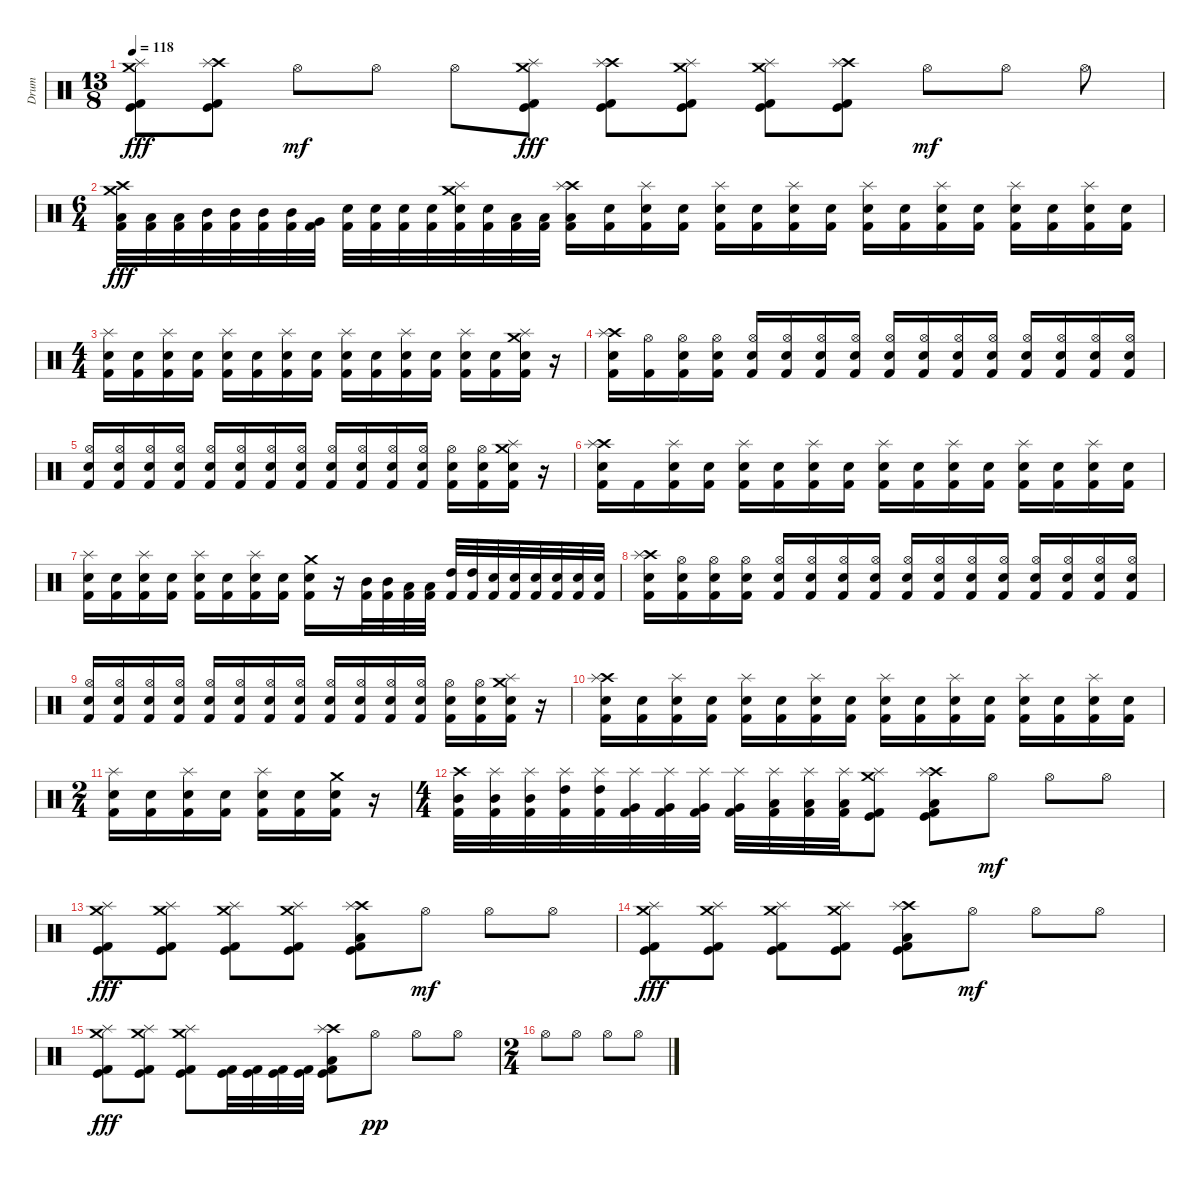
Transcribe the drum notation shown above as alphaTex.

\track ("Drum" "Drum") {instrument percussion}
\staff {score}
\articulation defaults
\ts (13 8)
\tempo 118
\clef neutral
\ks c
("Crash medium (hit)" "Splash (hit)" "Kick (hit)" "Kick (hit) 2").8{dy fff} ("Crash high (hit)" "Splash (hit)" "Kick (hit)" "Kick (hit) 2").8 "Hi-Hat (open)".8{dy mf} "Hi-Hat (open)".8 "Hi-Hat (open)".8 ("Crash medium (hit)" "Splash (hit)" "Kick (hit)" "Kick (hit) 2").8{dy fff} ("Crash high (hit)" "Splash (hit)" "Kick (hit)" "Kick (hit) 2").8 ("Crash medium (hit)" "Splash (hit)" "Kick (hit)" "Kick (hit) 2").8 ("Crash medium (hit)" "Splash (hit)" "Kick (hit)" "Kick (hit) 2").8 ("Crash high (hit)" "Splash (hit)" "Kick (hit)" "Kick (hit) 2").8 "Hi-Hat (open)".8{dy mf} "Hi-Hat (open)".8 "Hi-Hat (open)".8 |
\ts (6 4)
("Crash medium (hit)" "Crash high (hit)" "Low Tom (hit)" "Kick (hit) 2").32{dy fff} ("Low Tom (hit)" "Kick (hit) 2").32 ("Low Tom (hit)" "Kick (hit) 2").32 ("Mid Tom (hit)" "Kick (hit) 2").32 ("Mid Tom (hit)" "Kick (hit) 2").32 ("Mid Tom (hit)" "Kick (hit) 2").32 ("Mid Tom (hit)" "Kick (hit) 2").32 ("Very Low Tom (hit)" "Kick (hit) 2").32 ("Electric Snare (hit)" "Kick (hit) 2").32 ("Electric Snare (hit)" "Kick (hit) 2").32 ("Electric Snare (hit)" "Kick (hit) 2").32 ("Electric Snare (hit)" "Kick (hit) 2").32 ("Crash medium (hit)" "Splash (hit)" "Electric Snare (hit)" "Kick (hit) 2").32 ("Electric Snare (hit)" "Kick (hit) 2").32 ("Low Floor Tom (hit)" "Kick (hit) 2").32 ("Low Floor Tom (hit)" "Kick (hit) 2").32 ("Crash high (hit)" "Splash (hit)" "Low Floor Tom (hit)" "Kick (hit) 2").16 ("Electric Snare (hit)" "Kick (hit) 2").16 ("Splash (hit)" "Electric Snare (hit)" "Kick (hit) 2").16 ("Electric Snare (hit)" "Kick (hit) 2").16 ("Splash (hit)" "Electric Snare (hit)" "Kick (hit) 2").16 ("Electric Snare (hit)" "Kick (hit) 2").16 ("Splash (hit)" "Electric Snare (hit)" "Kick (hit) 2").16 ("Electric Snare (hit)" "Kick (hit) 2").16 ("Splash (hit)" "Electric Snare (hit)" "Kick (hit) 2").16 ("Electric Snare (hit)" "Kick (hit) 2").16 ("Splash (hit)" "Electric Snare (hit)" "Kick (hit) 2").16 ("Electric Snare (hit)" "Kick (hit) 2").16 ("Splash (hit)" "Electric Snare (hit)" "Kick (hit) 2").16 ("Electric Snare (hit)" "Kick (hit) 2").16 ("Splash (hit)" "Electric Snare (hit)" "Kick (hit) 2").16 ("Electric Snare (hit)" "Kick (hit) 2").16 |
\ts (4 4)
("Splash (hit)" "Electric Snare (hit)" "Kick (hit) 2").16 ("Electric Snare (hit)" "Kick (hit) 2").16 ("Splash (hit)" "Electric Snare (hit)" "Kick (hit) 2").16 ("Electric Snare (hit)" "Kick (hit) 2").16 ("Splash (hit)" "Electric Snare (hit)" "Kick (hit) 2").16 ("Electric Snare (hit)" "Kick (hit) 2").16 ("Splash (hit)" "Electric Snare (hit)" "Kick (hit) 2").16 ("Electric Snare (hit)" "Kick (hit) 2").16 ("Splash (hit)" "Electric Snare (hit)" "Kick (hit) 2").16 ("Electric Snare (hit)" "Kick (hit) 2").16 ("Splash (hit)" "Electric Snare (hit)" "Kick (hit) 2").16 ("Electric Snare (hit)" "Kick (hit) 2").16 ("Splash (hit)" "Electric Snare (hit)" "Kick (hit) 2").16 ("Electric Snare (hit)" "Kick (hit) 2").16 ("Crash medium (hit)" "Splash (hit)" "Electric Snare (hit)" "Kick (hit) 2").16 r.16 |
("Crash high (hit)" "Splash (hit)" "Electric Snare (hit)" "Kick (hit) 2").16 ("Hi-Hat (open)" "Kick (hit) 2").16 ("Hi-Hat (open)" "Electric Snare (hit)" "Kick (hit) 2").16 ("Hi-Hat (open)" "Electric Snare (hit)" "Kick (hit) 2").16 ("Hi-Hat (open)" "Electric Snare (hit)" "Kick (hit) 2").16 ("Hi-Hat (open)" "Electric Snare (hit)" "Kick (hit) 2").16 ("Hi-Hat (open)" "Electric Snare (hit)" "Kick (hit) 2").16 ("Hi-Hat (open)" "Electric Snare (hit)" "Kick (hit) 2").16 ("Hi-Hat (open)" "Electric Snare (hit)" "Kick (hit) 2").16 ("Hi-Hat (open)" "Electric Snare (hit)" "Kick (hit) 2").16 ("Hi-Hat (open)" "Electric Snare (hit)" "Kick (hit) 2").16 ("Hi-Hat (open)" "Electric Snare (hit)" "Kick (hit) 2").16 ("Hi-Hat (open)" "Electric Snare (hit)" "Kick (hit) 2").16 ("Hi-Hat (open)" "Electric Snare (hit)" "Kick (hit) 2").16 ("Hi-Hat (open)" "Electric Snare (hit)" "Kick (hit) 2").16 ("Hi-Hat (open)" "Electric Snare (hit)" "Kick (hit) 2").16 |
("Hi-Hat (open)" "Electric Snare (hit)" "Kick (hit) 2").16 ("Hi-Hat (open)" "Electric Snare (hit)" "Kick (hit) 2").16 ("Hi-Hat (open)" "Electric Snare (hit)" "Kick (hit) 2").16 ("Hi-Hat (open)" "Electric Snare (hit)" "Kick (hit) 2").16 ("Hi-Hat (open)" "Electric Snare (hit)" "Kick (hit) 2").16 ("Hi-Hat (open)" "Electric Snare (hit)" "Kick (hit) 2").16 ("Hi-Hat (open)" "Electric Snare (hit)" "Kick (hit) 2").16 ("Hi-Hat (open)" "Electric Snare (hit)" "Kick (hit) 2").16 ("Hi-Hat (open)" "Electric Snare (hit)" "Kick (hit) 2").16 ("Hi-Hat (open)" "Electric Snare (hit)" "Kick (hit) 2").16 ("Hi-Hat (open)" "Electric Snare (hit)" "Kick (hit) 2").16 ("Hi-Hat (open)" "Electric Snare (hit)" "Kick (hit) 2").16 ("Hi-Hat (open)" "Electric Snare (hit)" "Kick (hit) 2").16 ("Hi-Hat (open)" "Electric Snare (hit)" "Kick (hit) 2").16 ("Crash medium (hit)" "Splash (hit)" "Electric Snare (hit)" "Kick (hit) 2").16 r.16 |
("Crash high (hit)" "Splash (hit)" "Electric Snare (hit)" "Kick (hit) 2").16 "Kick (hit) 2".16 ("Splash (hit)" "Electric Snare (hit)" "Kick (hit) 2").16 ("Electric Snare (hit)" "Kick (hit) 2").16 ("Splash (hit)" "Electric Snare (hit)" "Kick (hit) 2").16 ("Electric Snare (hit)" "Kick (hit) 2").16 ("Splash (hit)" "Electric Snare (hit)" "Kick (hit) 2").16 ("Electric Snare (hit)" "Kick (hit) 2").16 ("Splash (hit)" "Electric Snare (hit)" "Kick (hit) 2").16 ("Electric Snare (hit)" "Kick (hit) 2").16 ("Splash (hit)" "Electric Snare (hit)" "Kick (hit) 2").16 ("Electric Snare (hit)" "Kick (hit) 2").16 ("Splash (hit)" "Electric Snare (hit)" "Kick (hit) 2").16 ("Electric Snare (hit)" "Kick (hit) 2").16 ("Splash (hit)" "Electric Snare (hit)" "Kick (hit) 2").16 ("Electric Snare (hit)" "Kick (hit) 2").16 |
("Splash (hit)" "Electric Snare (hit)" "Kick (hit) 2").16 ("Electric Snare (hit)" "Kick (hit) 2").16 ("Splash (hit)" "Electric Snare (hit)" "Kick (hit) 2").16 ("Electric Snare (hit)" "Kick (hit) 2").16 ("Splash (hit)" "Electric Snare (hit)" "Kick (hit) 2").16 ("Electric Snare (hit)" "Kick (hit) 2").16 ("Splash (hit)" "Electric Snare (hit)" "Kick (hit) 2").16 ("Electric Snare (hit)" "Kick (hit) 2").16 ("Crash medium (hit)" "Electric Snare (hit)" "Kick (hit) 2").16 r.16 ("Mid Tom (hit)" "Kick (hit) 2").32 ("Mid Tom (hit)" "Kick (hit) 2").32 ("Low Tom (hit)" "Kick (hit) 2").32 ("Low Tom (hit)" "Kick (hit) 2").32 ("High Tom (hit)" "Kick (hit) 2").32 ("High Tom (hit)" "Kick (hit) 2").32 ("Electric Snare (hit)" "Kick (hit) 2").32 ("Electric Snare (hit)" "Kick (hit) 2").32 ("Electric Snare (hit)" "Kick (hit) 2").32 ("Electric Snare (hit)" "Kick (hit) 2").32 ("Electric Snare (hit)" "Kick (hit) 2").32 ("Electric Snare (hit)" "Kick (hit) 2").32 |
("Crash high (hit)" "Splash (hit)" "Electric Snare (hit)" "Kick (hit) 2").16 ("Hi-Hat (open)" "Electric Snare (hit)" "Kick (hit) 2").16 ("Hi-Hat (open)" "Electric Snare (hit)" "Kick (hit) 2").16 ("Hi-Hat (open)" "Electric Snare (hit)" "Kick (hit) 2").16 ("Hi-Hat (open)" "Electric Snare (hit)" "Kick (hit) 2").16 ("Hi-Hat (open)" "Electric Snare (hit)" "Kick (hit) 2").16 ("Hi-Hat (open)" "Electric Snare (hit)" "Kick (hit) 2").16 ("Hi-Hat (open)" "Electric Snare (hit)" "Kick (hit) 2").16 ("Hi-Hat (open)" "Electric Snare (hit)" "Kick (hit) 2").16 ("Hi-Hat (open)" "Electric Snare (hit)" "Kick (hit) 2").16 ("Hi-Hat (open)" "Electric Snare (hit)" "Kick (hit) 2").16 ("Hi-Hat (open)" "Electric Snare (hit)" "Kick (hit) 2").16 ("Hi-Hat (open)" "Electric Snare (hit)" "Kick (hit) 2").16 ("Hi-Hat (open)" "Electric Snare (hit)" "Kick (hit) 2").16 ("Hi-Hat (open)" "Electric Snare (hit)" "Kick (hit) 2").16 ("Hi-Hat (open)" "Electric Snare (hit)" "Kick (hit) 2").16 |
("Hi-Hat (open)" "Electric Snare (hit)" "Kick (hit) 2").16 ("Hi-Hat (open)" "Electric Snare (hit)" "Kick (hit) 2").16 ("Hi-Hat (open)" "Electric Snare (hit)" "Kick (hit) 2").16 ("Hi-Hat (open)" "Electric Snare (hit)" "Kick (hit) 2").16 ("Hi-Hat (open)" "Electric Snare (hit)" "Kick (hit) 2").16 ("Hi-Hat (open)" "Electric Snare (hit)" "Kick (hit) 2").16 ("Hi-Hat (open)" "Electric Snare (hit)" "Kick (hit) 2").16 ("Hi-Hat (open)" "Electric Snare (hit)" "Kick (hit) 2").16 ("Hi-Hat (open)" "Electric Snare (hit)" "Kick (hit) 2").16 ("Hi-Hat (open)" "Electric Snare (hit)" "Kick (hit) 2").16 ("Hi-Hat (open)" "Electric Snare (hit)" "Kick (hit) 2").16 ("Hi-Hat (open)" "Electric Snare (hit)" "Kick (hit) 2").16 ("Hi-Hat (open)" "Electric Snare (hit)" "Kick (hit) 2").16 ("Hi-Hat (open)" "Electric Snare (hit)" "Kick (hit) 2").16 ("Crash medium (hit)" "Splash (hit)" "Electric Snare (hit)" "Kick (hit) 2").16 r.16 |
("Crash high (hit)" "Splash (hit)" "Electric Snare (hit)" "Kick (hit) 2").16 ("Electric Snare (hit)" "Kick (hit) 2").16 ("Splash (hit)" "Electric Snare (hit)" "Kick (hit) 2").16 ("Electric Snare (hit)" "Kick (hit) 2").16 ("Splash (hit)" "Electric Snare (hit)" "Kick (hit) 2").16 ("Electric Snare (hit)" "Kick (hit) 2").16 ("Splash (hit)" "Electric Snare (hit)" "Kick (hit) 2").16 ("Electric Snare (hit)" "Kick (hit) 2").16 ("Splash (hit)" "Electric Snare (hit)" "Kick (hit) 2").16 ("Electric Snare (hit)" "Kick (hit) 2").16 ("Splash (hit)" "Electric Snare (hit)" "Kick (hit) 2").16 ("Electric Snare (hit)" "Kick (hit) 2").16 ("Splash (hit)" "Electric Snare (hit)" "Kick (hit) 2").16 ("Electric Snare (hit)" "Kick (hit) 2").16 ("Splash (hit)" "Electric Snare (hit)" "Kick (hit) 2").16 ("Electric Snare (hit)" "Kick (hit) 2").16 |
\ts (2 4)
("Splash (hit)" "Electric Snare (hit)" "Kick (hit) 2").16 ("Electric Snare (hit)" "Kick (hit) 2").16 ("Splash (hit)" "Electric Snare (hit)" "Kick (hit) 2").16 ("Electric Snare (hit)" "Kick (hit) 2").16 ("Splash (hit)" "Electric Snare (hit)" "Kick (hit) 2").16 ("Electric Snare (hit)" "Kick (hit) 2").16 ("Crash medium (hit)" "Electric Snare (hit)" "Kick (hit) 2").16 r.16 |
\ts (4 4)
("Crash high (hit)" "Mid Tom (hit)" "Kick (hit) 2").32 ("Splash (hit)" "Mid Tom (hit)" "Kick (hit) 2").32 ("Splash (hit)" "Mid Tom (hit)" "Kick (hit) 2").32 ("Splash (hit)" "High Tom (hit)" "Kick (hit) 2").32 ("Splash (hit)" "High Tom (hit)" "Kick (hit) 2").32 ("Splash (hit)" "Very Low Tom (hit)" "Kick (hit) 2").32 ("Splash (hit)" "Very Low Tom (hit)" "Kick (hit) 2").32 ("Splash (hit)" "Very Low Tom (hit)" "Kick (hit) 2").32 ("Splash (hit)" "Very Low Tom (hit)" "Kick (hit) 2").32 ("Splash (hit)" "Low Tom (hit)" "Kick (hit) 2").32 ("Splash (hit)" "Low Tom (hit)" "Kick (hit) 2").32 ("Splash (hit)" "Low Tom (hit)" "Kick (hit) 2").32 ("Crash medium (hit)" "Splash (hit)" "Kick (hit)" "Kick (hit) 2").8 ("Crash high (hit)" "Splash (hit)" "Low Floor Tom (hit)" "Kick (hit)" "Kick (hit) 2").8 "Hi-Hat (open)".8{dy mf} "Hi-Hat (open)".8 "Hi-Hat (open)".8 |
("Crash medium (hit)" "Splash (hit)" "Kick (hit)" "Kick (hit) 2").8{dy fff} ("Crash medium (hit)" "Splash (hit)" "Kick (hit)" "Kick (hit) 2").8 ("Crash medium (hit)" "Splash (hit)" "Kick (hit)" "Kick (hit) 2").8 ("Crash medium (hit)" "Splash (hit)" "Kick (hit)" "Kick (hit) 2").8 ("Crash high (hit)" "Splash (hit)" "Low Floor Tom (hit)" "Kick (hit)" "Kick (hit) 2").8 "Hi-Hat (open)".8{dy mf} "Hi-Hat (open)".8 "Hi-Hat (open)".8 |
("Crash medium (hit)" "Splash (hit)" "Kick (hit)" "Kick (hit) 2").8{dy fff} ("Crash medium (hit)" "Splash (hit)" "Kick (hit)" "Kick (hit) 2").8 ("Crash medium (hit)" "Splash (hit)" "Kick (hit)" "Kick (hit) 2").8 ("Crash medium (hit)" "Splash (hit)" "Kick (hit)" "Kick (hit) 2").8 ("Crash high (hit)" "Splash (hit)" "Low Floor Tom (hit)" "Kick (hit)" "Kick (hit) 2").8 "Hi-Hat (open)".8{dy mf} "Hi-Hat (open)".8 "Hi-Hat (open)".8 |
("Crash medium (hit)" "Splash (hit)" "Kick (hit)" "Kick (hit) 2").8{dy fff} ("Crash medium (hit)" "Splash (hit)" "Kick (hit)" "Kick (hit) 2").8 ("Crash medium (hit)" "Splash (hit)" "Kick (hit)" "Kick (hit) 2").8 ("Kick (hit)" "Kick (hit) 2").32 ("Kick (hit)" "Kick (hit) 2").32 ("Kick (hit)" "Kick (hit) 2").32 ("Kick (hit)" "Kick (hit) 2").32 ("Crash high (hit)" "Splash (hit)" "Low Floor Tom (hit)" "Kick (hit)" "Kick (hit) 2").8 "Hi-Hat (open)".8{dy pp} "Hi-Hat (open)".8 "Hi-Hat (open)".8 |
\ts (2 4)
"Hi-Hat (open)".8 "Hi-Hat (open)".8 "Hi-Hat (open)".8 "Hi-Hat (open)".8
